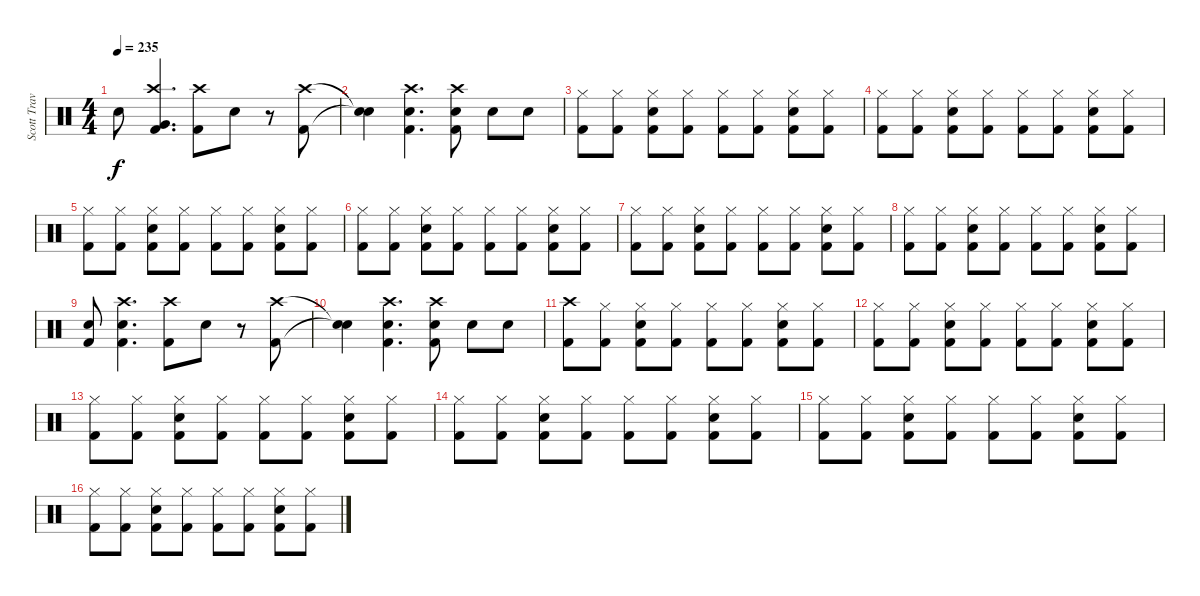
\track ("Scott Travis" "Scott Trav") {instrument percussion}
\staff {score}
\articulation defaults
\ts (4 4)
\tempo 235
\clef neutral
\ks c "Snare (hit) 2".8{dy f}
("Kick (hit) 2" "Crash high (hit)" "Very Low Tom (hit)").4{d} ("Kick (hit) 2" "Crash high (hit)").8 "Snare (hit) 2".8 r.8 ("Kick (hit) 2" "Crash high (hit)").8 |
("Snare (hit)"{t} "Snare (hit)"{t}).4 ("Kick (hit) 2" "Crash high (hit)" "Snare (hit) 2").4{d} ("Kick (hit) 2" "Crash high (hit)" "Snare (hit) 2").8 "Snare (hit) 2".8 "Snare (hit) 2".8 |
("Kick (hit) 2" "Hi-Hat (closed)").8 ("Kick (hit) 2" "Hi-Hat (closed)").8 ("Kick (hit) 2" "Snare (hit) 2" "Hi-Hat (closed)").8 ("Kick (hit) 2" "Hi-Hat (closed)").8 ("Kick (hit) 2" "Hi-Hat (closed)").8 ("Kick (hit) 2" "Hi-Hat (closed)").8 ("Kick (hit) 2" "Hi-Hat (closed)" "Snare (hit) 2").8 ("Kick (hit) 2" "Hi-Hat (closed)").8 |
("Kick (hit) 2" "Hi-Hat (closed)").8 ("Kick (hit) 2" "Hi-Hat (closed)").8 ("Kick (hit) 2" "Snare (hit) 2" "Hi-Hat (closed)").8 ("Kick (hit) 2" "Hi-Hat (closed)").8 ("Kick (hit) 2" "Hi-Hat (closed)").8 ("Kick (hit) 2" "Hi-Hat (closed)").8 ("Kick (hit) 2" "Hi-Hat (closed)" "Snare (hit) 2").8 ("Kick (hit) 2" "Hi-Hat (closed)").8 |
("Kick (hit) 2" "Hi-Hat (closed)").8 ("Kick (hit) 2" "Hi-Hat (closed)").8 ("Kick (hit) 2" "Snare (hit) 2" "Hi-Hat (closed)").8 ("Kick (hit) 2" "Hi-Hat (closed)").8 ("Kick (hit) 2" "Hi-Hat (closed)").8 ("Kick (hit) 2" "Hi-Hat (closed)").8 ("Kick (hit) 2" "Hi-Hat (closed)" "Snare (hit) 2").8 ("Kick (hit) 2" "Hi-Hat (closed)").8 |
("Kick (hit) 2" "Hi-Hat (closed)").8 ("Kick (hit) 2" "Hi-Hat (closed)").8 ("Kick (hit) 2" "Snare (hit) 2" "Hi-Hat (closed)").8 ("Kick (hit) 2" "Hi-Hat (closed)").8 ("Kick (hit) 2" "Hi-Hat (closed)").8 ("Kick (hit) 2" "Hi-Hat (closed)").8 ("Kick (hit) 2" "Hi-Hat (closed)" "Snare (hit) 2").8 ("Kick (hit) 2" "Hi-Hat (closed)").8 |
("Kick (hit) 2" "Hi-Hat (closed)").8 ("Kick (hit) 2" "Hi-Hat (closed)").8 ("Kick (hit) 2" "Snare (hit) 2" "Hi-Hat (closed)").8 ("Kick (hit) 2" "Hi-Hat (closed)").8 ("Kick (hit) 2" "Hi-Hat (closed)").8 ("Kick (hit) 2" "Hi-Hat (closed)").8 ("Kick (hit) 2" "Hi-Hat (closed)" "Snare (hit) 2").8 ("Kick (hit) 2" "Hi-Hat (closed)").8 |
("Kick (hit) 2" "Hi-Hat (closed)").8 ("Kick (hit) 2" "Hi-Hat (closed)").8 ("Kick (hit) 2" "Snare (hit) 2" "Hi-Hat (closed)").8 ("Kick (hit) 2" "Hi-Hat (closed)").8 ("Kick (hit) 2" "Hi-Hat (closed)").8 ("Kick (hit) 2" "Hi-Hat (closed)").8 ("Kick (hit) 2" "Hi-Hat (closed)" "Snare (hit) 2").8 ("Kick (hit) 2" "Hi-Hat (closed)").8 |
("Kick (hit) 2" "Snare (hit) 2").8 ("Kick (hit) 2" "Snare (hit) 2" "Crash high (hit)").4{d} ("Crash high (hit)" "Kick (hit) 2").8 "Snare (hit) 2".8 r.8 ("Kick (hit) 2" "Crash high (hit)").8 |
("Snare (hit)"{t} "Snare (hit)"{t}).4 ("Kick (hit) 2" "Crash high (hit)" "Snare (hit) 2").4{d} ("Kick (hit) 2" "Crash high (hit)" "Snare (hit) 2").8 "Snare (hit) 2".8 "Snare (hit) 2".8 |
("Kick (hit) 2" "Crash high (hit)").8 ("Kick (hit) 2" "Hi-Hat (closed)").8 ("Kick (hit) 2" "Snare (hit) 2" "Hi-Hat (closed)").8 ("Kick (hit) 2" "Hi-Hat (closed)").8 ("Kick (hit) 2" "Hi-Hat (closed)").8 ("Kick (hit) 2" "Hi-Hat (closed)").8 ("Kick (hit) 2" "Hi-Hat (closed)" "Snare (hit) 2").8 ("Kick (hit) 2" "Hi-Hat (closed)").8 |
("Kick (hit) 2" "Hi-Hat (closed)").8 ("Kick (hit) 2" "Hi-Hat (closed)").8 ("Kick (hit) 2" "Snare (hit) 2" "Hi-Hat (closed)").8 ("Kick (hit) 2" "Hi-Hat (closed)").8 ("Kick (hit) 2" "Hi-Hat (closed)").8 ("Kick (hit) 2" "Hi-Hat (closed)").8 ("Kick (hit) 2" "Hi-Hat (closed)" "Snare (hit) 2").8 ("Kick (hit) 2" "Hi-Hat (closed)").8 |
("Kick (hit) 2" "Hi-Hat (closed)").8 ("Kick (hit) 2" "Hi-Hat (closed)").8 ("Kick (hit) 2" "Snare (hit) 2" "Hi-Hat (closed)").8 ("Kick (hit) 2" "Hi-Hat (closed)").8 ("Kick (hit) 2" "Hi-Hat (closed)").8 ("Kick (hit) 2" "Hi-Hat (closed)").8 ("Kick (hit) 2" "Hi-Hat (closed)" "Snare (hit) 2").8 ("Kick (hit) 2" "Hi-Hat (closed)").8 |
("Kick (hit) 2" "Hi-Hat (closed)").8 ("Kick (hit) 2" "Hi-Hat (closed)").8 ("Kick (hit) 2" "Snare (hit) 2" "Hi-Hat (closed)").8 ("Kick (hit) 2" "Hi-Hat (closed)").8 ("Kick (hit) 2" "Hi-Hat (closed)").8 ("Kick (hit) 2" "Hi-Hat (closed)").8 ("Kick (hit) 2" "Hi-Hat (closed)" "Snare (hit) 2").8 ("Kick (hit) 2" "Hi-Hat (closed)").8 |
("Kick (hit) 2" "Hi-Hat (closed)").8 ("Kick (hit) 2" "Hi-Hat (closed)").8 ("Kick (hit) 2" "Snare (hit) 2" "Hi-Hat (closed)").8 ("Kick (hit) 2" "Hi-Hat (closed)").8 ("Kick (hit) 2" "Hi-Hat (closed)").8 ("Kick (hit) 2" "Hi-Hat (closed)").8 ("Kick (hit) 2" "Hi-Hat (closed)" "Snare (hit) 2").8 ("Kick (hit) 2" "Hi-Hat (closed)").8 |
("Kick (hit) 2" "Hi-Hat (closed)").8 ("Kick (hit) 2" "Hi-Hat (closed)").8 ("Kick (hit) 2" "Snare (hit) 2" "Hi-Hat (closed)").8 ("Kick (hit) 2" "Hi-Hat (closed)").8 ("Kick (hit) 2" "Hi-Hat (closed)").8 ("Kick (hit) 2" "Hi-Hat (closed)").8 ("Kick (hit) 2" "Hi-Hat (closed)" "Snare (hit) 2").8 ("Kick (hit) 2" "Hi-Hat (closed)").8
